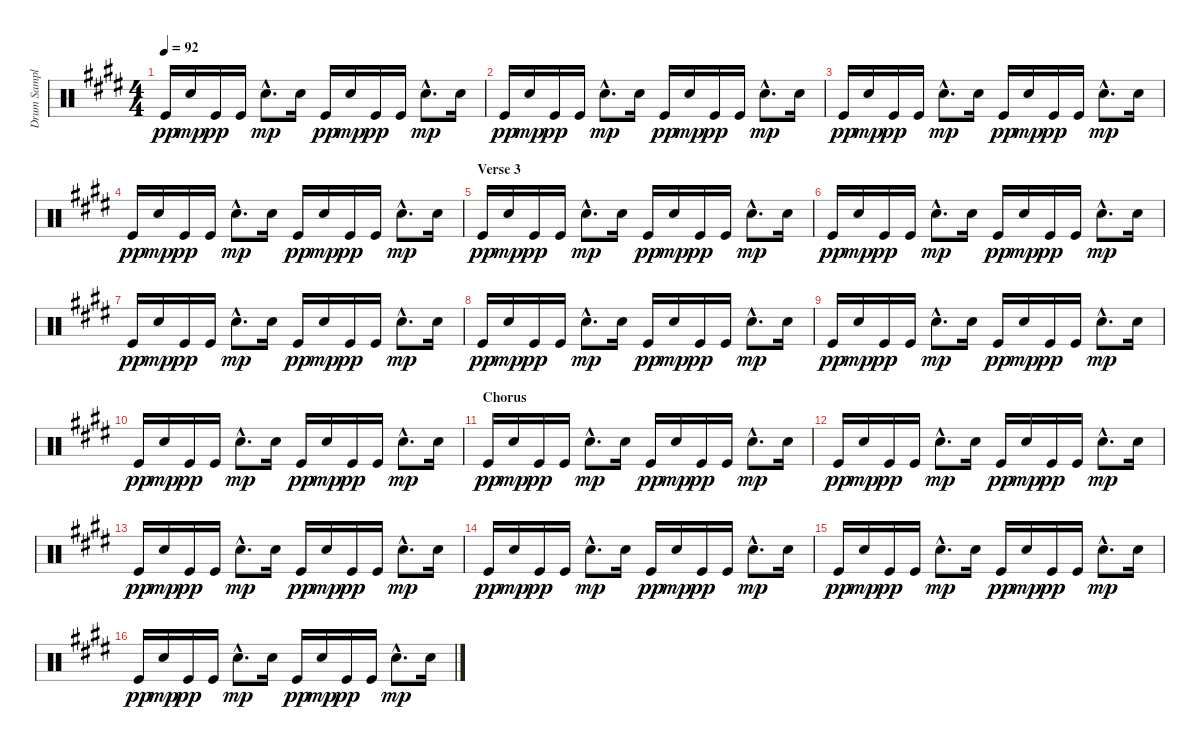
\track ("Drum Sampler" "Drum Sampl") {instrument percussion}
\staff {score}
\articulation defaults
\ts (4 4)
\tempo 92
\clef neutral
\ks e "Kick (hit)".16{dy pp} "Electric Snare (hit)".16{dy mp} "Kick (hit)".16{dy pp} "Kick (hit)".16 "Electric Snare (hit)"{hac}.8{d dy mp} "Electric Snare (hit)".16 "Kick (hit)".16{dy pp} "Electric Snare (hit)".16{dy mp} "Kick (hit)".16{dy pp} "Kick (hit)".16 "Electric Snare (hit)"{hac}.8{d dy mp} "Electric Snare (hit)".16
|
"Kick (hit)".16{dy pp} "Electric Snare (hit)".16{dy mp} "Kick (hit)".16{dy pp} "Kick (hit)".16 "Electric Snare (hit)"{hac}.8{d dy mp} "Electric Snare (hit)".16 "Kick (hit)".16{dy pp} "Electric Snare (hit)".16{dy mp} "Kick (hit)".16{dy pp} "Kick (hit)".16 "Electric Snare (hit)"{hac}.8{d dy mp} "Electric Snare (hit)".16 |
"Kick (hit)".16{dy pp} "Electric Snare (hit)".16{dy mp} "Kick (hit)".16{dy pp} "Kick (hit)".16 "Electric Snare (hit)"{hac}.8{d dy mp} "Electric Snare (hit)".16 "Kick (hit)".16{dy pp} "Electric Snare (hit)".16{dy mp} "Kick (hit)".16{dy pp} "Kick (hit)".16 "Electric Snare (hit)"{hac}.8{d dy mp} "Electric Snare (hit)".16 |
"Kick (hit)".16{dy pp} "Electric Snare (hit)".16{dy mp} "Kick (hit)".16{dy pp} "Kick (hit)".16 "Electric Snare (hit)"{hac}.8{d dy mp} "Electric Snare (hit)".16 "Kick (hit)".16{dy pp} "Electric Snare (hit)".16{dy mp} "Kick (hit)".16{dy pp} "Kick (hit)".16 "Electric Snare (hit)"{hac}.8{d dy mp} "Electric Snare (hit)".16 |
\section ("" "Verse 3")
"Kick (hit)".16{dy pp} "Electric Snare (hit)".16{dy mp} "Kick (hit)".16{dy pp} "Kick (hit)".16 "Electric Snare (hit)"{hac}.8{d dy mp} "Electric Snare (hit)".16 "Kick (hit)".16{dy pp} "Electric Snare (hit)".16{dy mp} "Kick (hit)".16{dy pp} "Kick (hit)".16 "Electric Snare (hit)"{hac}.8{d dy mp} "Electric Snare (hit)".16 |
"Kick (hit)".16{dy pp} "Electric Snare (hit)".16{dy mp} "Kick (hit)".16{dy pp} "Kick (hit)".16 "Electric Snare (hit)"{hac}.8{d dy mp} "Electric Snare (hit)".16 "Kick (hit)".16{dy pp} "Electric Snare (hit)".16{dy mp} "Kick (hit)".16{dy pp} "Kick (hit)".16 "Electric Snare (hit)"{hac}.8{d dy mp} "Electric Snare (hit)".16 |
"Kick (hit)".16{dy pp} "Electric Snare (hit)".16{dy mp} "Kick (hit)".16{dy pp} "Kick (hit)".16 "Electric Snare (hit)"{hac}.8{d dy mp} "Electric Snare (hit)".16 "Kick (hit)".16{dy pp} "Electric Snare (hit)".16{dy mp} "Kick (hit)".16{dy pp} "Kick (hit)".16 "Electric Snare (hit)"{hac}.8{d dy mp} "Electric Snare (hit)".16 |
"Kick (hit)".16{dy pp} "Electric Snare (hit)".16{dy mp} "Kick (hit)".16{dy pp} "Kick (hit)".16 "Electric Snare (hit)"{hac}.8{d dy mp} "Electric Snare (hit)".16 "Kick (hit)".16{dy pp} "Electric Snare (hit)".16{dy mp} "Kick (hit)".16{dy pp} "Kick (hit)".16 "Electric Snare (hit)"{hac}.8{d dy mp} "Electric Snare (hit)".16 |
"Kick (hit)".16{dy pp} "Electric Snare (hit)".16{dy mp} "Kick (hit)".16{dy pp} "Kick (hit)".16 "Electric Snare (hit)"{hac}.8{d dy mp} "Electric Snare (hit)".16 "Kick (hit)".16{dy pp} "Electric Snare (hit)".16{dy mp} "Kick (hit)".16{dy pp} "Kick (hit)".16 "Electric Snare (hit)"{hac}.8{d dy mp} "Electric Snare (hit)".16 |
"Kick (hit)".16{dy pp} "Electric Snare (hit)".16{dy mp} "Kick (hit)".16{dy pp} "Kick (hit)".16 "Electric Snare (hit)"{hac}.8{d dy mp} "Electric Snare (hit)".16 "Kick (hit)".16{dy pp} "Electric Snare (hit)".16{dy mp} "Kick (hit)".16{dy pp} "Kick (hit)".16 "Electric Snare (hit)"{hac}.8{d dy mp} "Electric Snare (hit)".16 |
\section ("" "Chorus")
"Kick (hit)".16{dy pp} "Electric Snare (hit)".16{dy mp} "Kick (hit)".16{dy pp} "Kick (hit)".16 "Electric Snare (hit)"{hac}.8{d dy mp} "Electric Snare (hit)".16 "Kick (hit)".16{dy pp} "Electric Snare (hit)".16{dy mp} "Kick (hit)".16{dy pp} "Kick (hit)".16 "Electric Snare (hit)"{hac}.8{d dy mp} "Electric Snare (hit)".16 |
"Kick (hit)".16{dy pp} "Electric Snare (hit)".16{dy mp} "Kick (hit)".16{dy pp} "Kick (hit)".16 "Electric Snare (hit)"{hac}.8{d dy mp} "Electric Snare (hit)".16 "Kick (hit)".16{dy pp} "Electric Snare (hit)".16{dy mp} "Kick (hit)".16{dy pp} "Kick (hit)".16 "Electric Snare (hit)"{hac}.8{d dy mp} "Electric Snare (hit)".16 |
"Kick (hit)".16{dy pp} "Electric Snare (hit)".16{dy mp} "Kick (hit)".16{dy pp} "Kick (hit)".16 "Electric Snare (hit)"{hac}.8{d dy mp} "Electric Snare (hit)".16 "Kick (hit)".16{dy pp} "Electric Snare (hit)".16{dy mp} "Kick (hit)".16{dy pp} "Kick (hit)".16 "Electric Snare (hit)"{hac}.8{d dy mp} "Electric Snare (hit)".16 |
"Kick (hit)".16{dy pp} "Electric Snare (hit)".16{dy mp} "Kick (hit)".16{dy pp} "Kick (hit)".16 "Electric Snare (hit)"{hac}.8{d dy mp} "Electric Snare (hit)".16 "Kick (hit)".16{dy pp} "Electric Snare (hit)".16{dy mp} "Kick (hit)".16{dy pp} "Kick (hit)".16 "Electric Snare (hit)"{hac}.8{d dy mp} "Electric Snare (hit)".16 |
"Kick (hit)".16{dy pp} "Electric Snare (hit)".16{dy mp} "Kick (hit)".16{dy pp} "Kick (hit)".16 "Electric Snare (hit)"{hac}.8{d dy mp} "Electric Snare (hit)".16 "Kick (hit)".16{dy pp} "Electric Snare (hit)".16{dy mp} "Kick (hit)".16{dy pp} "Kick (hit)".16 "Electric Snare (hit)"{hac}.8{d dy mp} "Electric Snare (hit)".16 |
"Kick (hit)".16{dy pp} "Electric Snare (hit)".16{dy mp} "Kick (hit)".16{dy pp} "Kick (hit)".16 "Electric Snare (hit)"{hac}.8{d dy mp} "Electric Snare (hit)".16 "Kick (hit)".16{dy pp} "Electric Snare (hit)".16{dy mp} "Kick (hit)".16{dy pp} "Kick (hit)".16 "Electric Snare (hit)"{hac}.8{d dy mp} "Electric Snare (hit)".16
